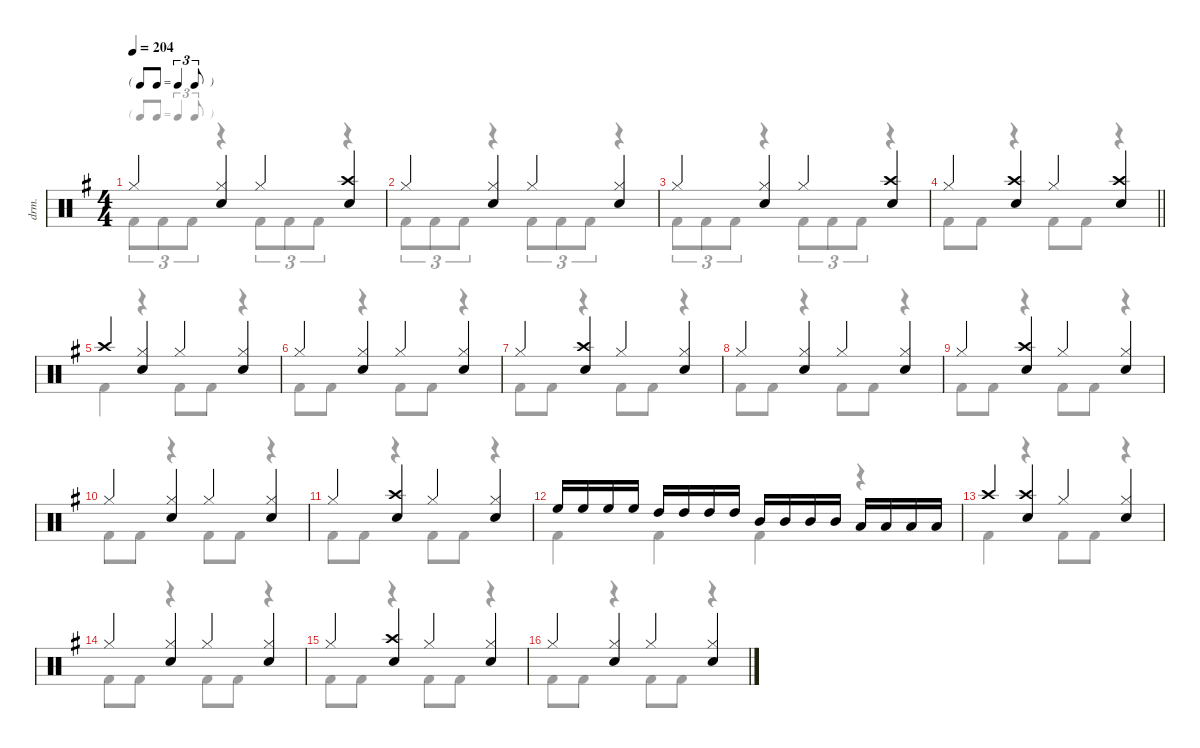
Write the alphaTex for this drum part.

\defaultSystemsLayout 4
\hideDynamics
\bracketExtendMode nobrackets
\otherSystemsTrackNameOrientation horizontal
\track ("Lars Ulrich" "drm.") {defaultSystemsLayout 8 instrument percussion}
\staff {score}
\articulation defaults
\voice
\ts (4 4)
\tf triplet8th
\tempo 204
\clef neutral
\ks eminor "Hi-Hat (closed)"{acc forcenatural}.4{dy f beam Up}
("Hi-Hat (closed)"{acc forcenatural} "Snare (hit) 2"{acc forcenatural}).4{beam Up} "Hi-Hat (closed)"{acc forcenatural}.4{beam Up} ("Crash high (hit)"{acc forcenatural} "Snare (hit) 2"{acc forcenatural}).4{beam Up} |
"Hi-Hat (closed)"{acc forcenatural}.4{beam Up} ("Hi-Hat (closed)"{acc forcenatural} "Snare (hit) 2"{acc forcenatural}).4{beam Up} "Hi-Hat (closed)"{acc forcenatural}.4{beam Up} ("Hi-Hat (closed)"{acc forcenatural} "Snare (hit) 2"{acc forcenatural}).4{beam Up} |
"Hi-Hat (closed)"{acc forcenatural}.4{beam Up} ("Hi-Hat (closed)"{acc forcenatural} "Snare (hit) 2"{acc forcenatural}).4{beam Up} "Hi-Hat (closed)"{acc forcenatural}.4{beam Up} ("Crash high (hit)"{acc forcenatural} "Snare (hit) 2"{acc forcenatural}).4{beam Up} |
\barLineRight lightlight "Hi-Hat (closed)"{acc forcenatural}.4{beam Up}
("Crash high (hit)"{acc forcenatural} "Snare (hit) 2"{acc forcenatural}).4{beam Up} "Hi-Hat (closed)"{acc forcenatural}.4{beam Up} ("Crash high (hit)"{acc forcenatural} "Snare (hit) 2"{acc forcenatural}).4{beam Up} |
"Crash high (hit)"{acc forcenatural}.4{beam Up} ("Hi-Hat (closed)"{acc forcenatural} "Snare (hit) 2"{acc forcenatural}).4{beam Up} "Hi-Hat (closed)"{acc forcenatural}.4{beam Up} ("Hi-Hat (closed)"{acc forcenatural} "Snare (hit) 2"{acc forcenatural}).4{beam Up} |
"Hi-Hat (closed)"{acc forcenatural}.4{beam Up} ("Hi-Hat (closed)"{acc forcenatural} "Snare (hit) 2"{acc forcenatural}).4{beam Up} "Hi-Hat (closed)"{acc forcenatural}.4{beam Up} ("Hi-Hat (closed)"{acc forcenatural} "Snare (hit) 2"{acc forcenatural}).4{beam Up} |
"Hi-Hat (closed)"{acc forcenatural}.4{beam Up} ("Crash high (hit)"{acc forcenatural} "Snare (hit) 2"{acc forcenatural}).4{beam Up} "Hi-Hat (closed)"{acc forcenatural}.4{beam Up} ("Hi-Hat (closed)"{acc forcenatural} "Snare (hit) 2"{acc forcenatural}).4{beam Up} |
"Hi-Hat (closed)"{acc forcenatural}.4{beam Up} ("Hi-Hat (closed)"{acc forcenatural} "Snare (hit) 2"{acc forcenatural}).4{beam Up} "Hi-Hat (closed)"{acc forcenatural}.4{beam Up} ("Hi-Hat (closed)"{acc forcenatural} "Snare (hit) 2"{acc forcenatural}).4{beam Up} |
"Hi-Hat (closed)"{acc forcenatural}.4{beam Up} ("Crash high (hit)"{acc forcenatural} "Snare (hit) 2"{acc forcenatural}).4{beam Up} "Hi-Hat (closed)"{acc forcenatural}.4{beam Up} ("Hi-Hat (closed)"{acc forcenatural} "Snare (hit) 2"{acc forcenatural}).4{beam Up} |
"Hi-Hat (closed)"{acc forcenatural}.4{beam Up} ("Hi-Hat (closed)"{acc forcenatural} "Snare (hit) 2"{acc forcenatural}).4{beam Up} "Hi-Hat (closed)"{acc forcenatural}.4{beam Up} ("Hi-Hat (closed)"{acc forcenatural} "Snare (hit) 2"{acc forcenatural}).4{beam Up} |
"Hi-Hat (closed)"{acc forcenatural}.4{beam Up} ("Crash high (hit)"{acc forcenatural} "Snare (hit) 2"{acc forcenatural}).4{beam Up} "Hi-Hat (closed)"{acc forcenatural}.4{beam Up} ("Hi-Hat (closed)"{acc forcenatural} "Snare (hit) 2"{acc forcenatural}).4{beam Up} |
"High Floor Tom (hit)"{acc forcenatural}.16{beam Up} "High Floor Tom (hit)"{acc forcenatural}.16{beam Up} "High Floor Tom (hit)"{acc forcenatural}.16{beam Up} "High Floor Tom (hit)"{acc forcenatural}.16{beam Up} "High Tom (hit)"{acc forcenatural}.16{beam Up} "High Tom (hit)"{acc forcenatural}.16{beam Up} "High Tom (hit)"{acc forcenatural}.16{beam Up} "High Tom (hit)"{acc forcenatural}.16{beam Up} "Mid Tom (hit)"{acc forcenatural}.16{beam Up} "Mid Tom (hit)"{acc forcenatural}.16{beam Up} "Mid Tom (hit)"{acc forcenatural}.16{beam Up} "Mid Tom (hit)"{acc forcenatural}.16{beam Up} "Low Tom (hit)"{acc forcenatural}.16{beam Up} "Low Tom (hit)"{acc forcenatural}.16{beam Up} "Low Tom (hit)"{acc forcenatural}.16{beam Up} "Low Tom (hit)"{acc forcenatural}.16{beam Up} |
"Crash high (hit)"{acc forcenatural}.4{beam Up} ("Crash high (hit)"{acc forcenatural} "Snare (hit) 2"{acc forcenatural}).4{beam Up} "Hi-Hat (closed)"{acc forcenatural}.4{beam Up} ("Hi-Hat (closed)"{acc forcenatural} "Snare (hit) 2"{acc forcenatural}).4{beam Up} |
"Hi-Hat (closed)"{acc forcenatural}.4{beam Up} ("Hi-Hat (closed)"{acc forcenatural} "Snare (hit) 2"{acc forcenatural}).4{beam Up} "Hi-Hat (closed)"{acc forcenatural}.4{beam Up} ("Hi-Hat (closed)"{acc forcenatural} "Snare (hit) 2"{acc forcenatural}).4{beam Up} |
"Hi-Hat (closed)"{acc forcenatural}.4{beam Up} ("Crash high (hit)"{acc forcenatural} "Snare (hit) 2"{acc forcenatural}).4{beam Up} "Hi-Hat (closed)"{acc forcenatural}.4{beam Up} ("Hi-Hat (closed)"{acc forcenatural} "Snare (hit) 2"{acc forcenatural}).4{beam Up} |
"Hi-Hat (closed)"{acc forcenatural}.4{beam Up} ("Hi-Hat (closed)"{acc forcenatural} "Snare (hit) 2"{acc forcenatural}).4{beam Up} "Hi-Hat (closed)"{acc forcenatural}.4{beam Up} ("Hi-Hat (closed)"{acc forcenatural} "Snare (hit) 2"{acc forcenatural}).4{beam Up}
\voice
\clef neutral
\ottava regular
\simile none
\ks eminor "Kick (hit) 2"{acc forcenatural}.8{tu (3 2) dy f beam Down} "Kick (hit) 2"{acc forcenatural}.8{tu (3 2) beam Down} "Kick (hit) 2"{acc forcenatural}.8{tu (3 2) beam Down}
r.4{beam Down} "Kick (hit) 2"{acc forcenatural}.8{tu (3 2) beam Down} "Kick (hit) 2"{acc forcenatural}.8{tu (3 2) beam Down} "Kick (hit) 2"{acc forcenatural}.8{tu (3 2) beam Down} r.4{beam Down} |
"Kick (hit) 2"{acc forcenatural}.8{tu (3 2) beam Down} "Kick (hit) 2"{acc forcenatural}.8{tu (3 2) beam Down} "Kick (hit) 2"{acc forcenatural}.8{tu (3 2) beam Down} r.4{beam Down} "Kick (hit) 2"{acc forcenatural}.8{tu (3 2) beam Down} "Kick (hit) 2"{acc forcenatural}.8{tu (3 2) beam Down} "Kick (hit) 2"{acc forcenatural}.8{tu (3 2) beam Down} r.4{beam Down} |
"Kick (hit) 2"{acc forcenatural}.8{tu (3 2) beam Down} "Kick (hit) 2"{acc forcenatural}.8{tu (3 2) beam Down} "Kick (hit) 2"{acc forcenatural}.8{tu (3 2) beam Down} r.4{beam Down} "Kick (hit) 2"{acc forcenatural}.8{tu (3 2) beam Down} "Kick (hit) 2"{acc forcenatural}.8{tu (3 2) beam Down} "Kick (hit) 2"{acc forcenatural}.8{tu (3 2) beam Down} r.4{beam Down} |
\barLineRight lightlight "Kick (hit) 2"{acc forcenatural}.8{beam Down} "Kick (hit) 2"{acc forcenatural}.8{beam Down}
r.4{beam Down} "Kick (hit) 2"{acc forcenatural}.8{beam Down} "Kick (hit) 2"{acc forcenatural}.8{beam Down} r.4{beam Down} |
"Kick (hit) 2"{acc forcenatural}.4{beam Down} r.4{beam Down} "Kick (hit) 2"{acc forcenatural}.8{beam Down} "Kick (hit) 2"{acc forcenatural}.8{beam Down} r.4{beam Down} |
"Kick (hit) 2"{acc forcenatural}.8{beam Down} "Kick (hit) 2"{acc forcenatural}.8{beam Down} r.4{beam Down} "Kick (hit) 2"{acc forcenatural}.8{beam Down} "Kick (hit) 2"{acc forcenatural}.8{beam Down} r.4{beam Down} |
"Kick (hit) 2"{acc forcenatural}.8{beam Down} "Kick (hit) 2"{acc forcenatural}.8{beam Down} r.4{beam Down} "Kick (hit) 2"{acc forcenatural}.8{beam Down} "Kick (hit) 2"{acc forcenatural}.8{beam Down} r.4{beam Down} |
"Kick (hit) 2"{acc forcenatural}.8{beam Down} "Kick (hit) 2"{acc forcenatural}.8{beam Down} r.4{beam Down} "Kick (hit) 2"{acc forcenatural}.8{beam Down} "Kick (hit) 2"{acc forcenatural}.8{beam Down} r.4{beam Down} |
"Kick (hit) 2"{acc forcenatural}.8{beam Down} "Kick (hit) 2"{acc forcenatural}.8{beam Down} r.4{beam Down} "Kick (hit) 2"{acc forcenatural}.8{beam Down} "Kick (hit) 2"{acc forcenatural}.8{beam Down} r.4{beam Down} |
"Kick (hit) 2"{acc forcenatural}.8{beam Down} "Kick (hit) 2"{acc forcenatural}.8{beam Down} r.4{beam Down} "Kick (hit) 2"{acc forcenatural}.8{beam Down} "Kick (hit) 2"{acc forcenatural}.8{beam Down} r.4{beam Down} |
"Kick (hit) 2"{acc forcenatural}.8{beam Down} "Kick (hit) 2"{acc forcenatural}.8{beam Down} r.4{beam Down} "Kick (hit) 2"{acc forcenatural}.8{beam Down} "Kick (hit) 2"{acc forcenatural}.8{beam Down} r.4{beam Down} |
"Kick (hit) 2"{acc forcenatural}.4{beam Down} "Kick (hit) 2"{acc forcenatural}.4{beam Down} "Kick (hit) 2"{acc forcenatural}.4{beam Down} r.4{beam Down} |
"Kick (hit) 2"{acc forcenatural}.4{beam Down} r.4{beam Down} "Kick (hit) 2"{acc forcenatural}.8{beam Down} "Kick (hit) 2"{acc forcenatural}.8{beam Down} r.4{beam Down} |
"Kick (hit) 2"{acc forcenatural}.8{beam Down} "Kick (hit) 2"{acc forcenatural}.8{beam Down} r.4{beam Down} "Kick (hit) 2"{acc forcenatural}.8{beam Down} "Kick (hit) 2"{acc forcenatural}.8{beam Down} r.4{beam Down} |
"Kick (hit) 2"{acc forcenatural}.8{beam Down} "Kick (hit) 2"{acc forcenatural}.8{beam Down} r.4{beam Down} "Kick (hit) 2"{acc forcenatural}.8{beam Down} "Kick (hit) 2"{acc forcenatural}.8{beam Down} r.4{beam Down} |
"Kick (hit) 2"{acc forcenatural}.8{beam Down} "Kick (hit) 2"{acc forcenatural}.8{beam Down} r.4{beam Down} "Kick (hit) 2"{acc forcenatural}.8{beam Down} "Kick (hit) 2"{acc forcenatural}.8{beam Down} r.4{beam Down}
